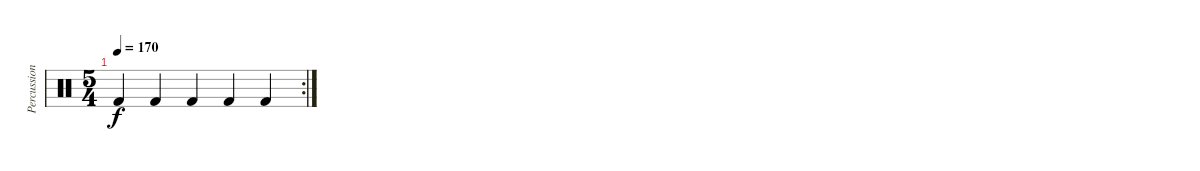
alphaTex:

\track ("Percussion" "Percussion") {instrument percussion}
\staff {score}
\articulation defaults
\rc 2
\ts (5 4)
\tempo 170
\clef neutral
\ks c "Kick (hit) 2".4{dy f} "Kick (hit) 2".4 "Kick (hit) 2".4 "Kick (hit) 2".4 "Kick (hit) 2".4
